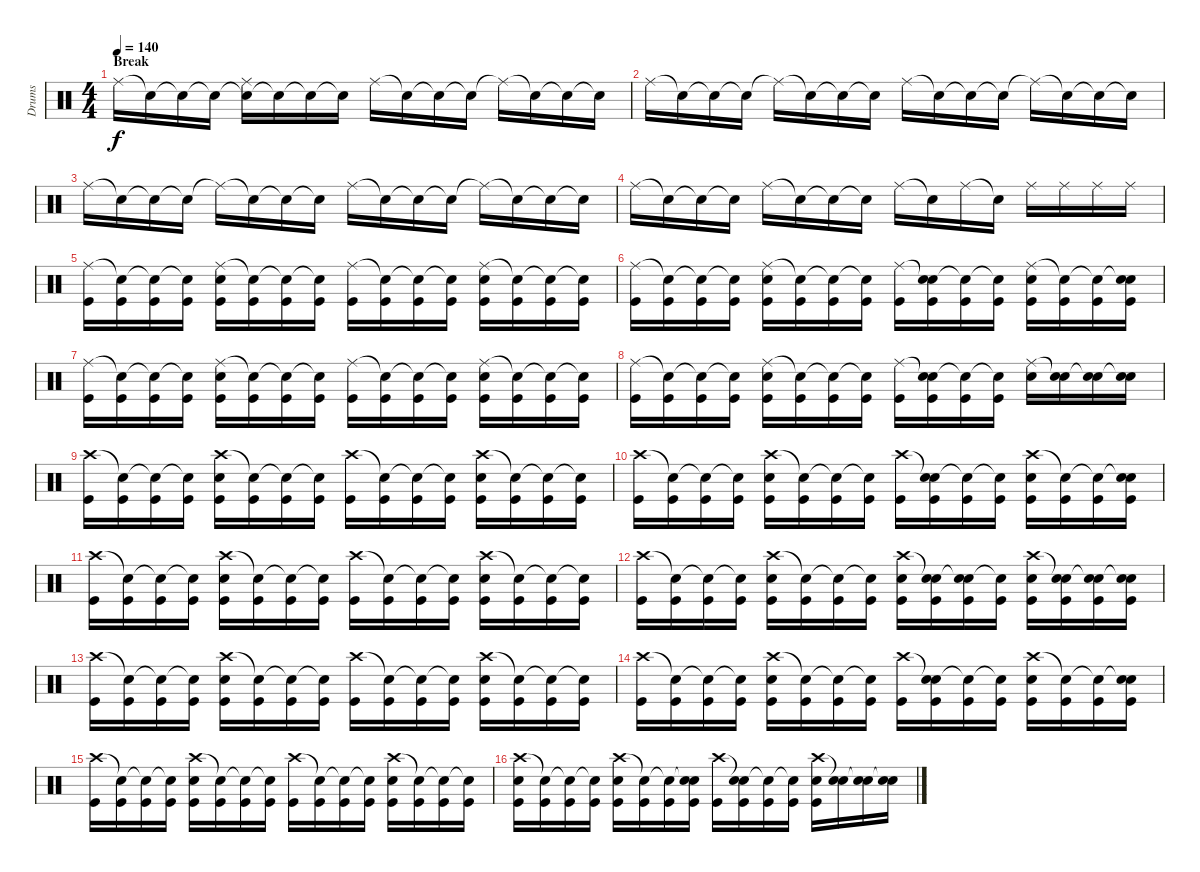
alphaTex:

\track ("Drums" "Drums") {instrument percussion}
\staff {score}
\articulation defaults
\ts (4 4)
\section ("" "Break")
\tempo 140
\clef neutral
\ks c "Ride (middle)".16{dy f} "Snare (hit)"{t}.16 "Snare (hit)"{t}.16 "Snare (hit)"{t}.16
("Snare (hit)"{t} "Ride (middle)"{t}).16 "Snare (hit)"{t}.16 "Snare (hit)"{t}.16 "Snare (hit)"{t}.16 "Ride (middle)".16 "Snare (hit)"{t}.16 "Snare (hit)"{t}.16 "Snare (hit)"{t}.16 "Ride (middle)"{t}.16 "Snare (hit)"{t}.16 "Snare (hit)"{t}.16 "Snare (hit)"{t}.16 |
"Ride (middle)".16 "Snare (hit)"{t}.16 "Snare (hit)"{t}.16 "Snare (hit)"{t}.16 "Ride (middle)"{t}.16 "Snare (hit)"{t}.16 "Snare (hit)"{t}.16 "Snare (hit)"{t}.16 "Ride (middle)".16 "Snare (hit)"{t}.16 "Snare (hit)"{t}.16 "Snare (hit)"{t}.16 "Ride (middle)"{t}.16 "Snare (hit)"{t}.16 "Snare (hit)"{t}.16 "Snare (hit)"{t}.16 |
"Ride (middle)".16 "Snare (hit)"{t}.16 "Snare (hit)"{t}.16 "Snare (hit)"{t}.16 "Ride (middle)"{t}.16 "Snare (hit)"{t}.16 "Snare (hit)"{t}.16 "Snare (hit)"{t}.16 "Ride (middle)".16 "Snare (hit)"{t}.16 "Snare (hit)"{t}.16 "Snare (hit)"{t}.16 "Ride (middle)"{t}.16 "Snare (hit)"{t}.16 "Snare (hit)"{t}.16 "Snare (hit)"{t}.16 |
"Ride (middle)".16 "Snare (hit)"{t}.16 "Snare (hit)"{t}.16 "Snare (hit)"{t}.16 "Ride (middle)".16 "Snare (hit)"{t}.16 "Snare (hit)"{t}.16 "Snare (hit)"{t}.16 "Ride (middle)".16 "Snare (hit)"{t}.16 "Ride (middle)".16 "Snare (hit)"{t}.16 "Ride (middle)".16 "Ride (middle)".16 "Ride (middle)".16 "Ride (middle)".16 |
("Ride (middle)" "Kick (hit)").16 ("Snare (hit)"{t} "Kick (hit)").16 ("Snare (hit)"{t} "Kick (hit)").16 ("Snare (hit)"{t} "Kick (hit)").16 ("Ride (middle)" "Electric Snare (hit)" "Kick (hit)").16 ("Snare (hit)"{t} "Kick (hit)").16 ("Snare (hit)"{t} "Kick (hit)").16 ("Snare (hit)"{t} "Kick (hit)").16 ("Ride (middle)" "Kick (hit)").16 ("Snare (hit)"{t} "Kick (hit)").16 ("Snare (hit)"{t} "Kick (hit)").16 ("Snare (hit)"{t} "Kick (hit)").16 ("Ride (middle)" "Electric Snare (hit)" "Kick (hit)").16 ("Snare (hit)"{t} "Kick (hit)").16 ("Snare (hit)"{t} "Kick (hit)").16 ("Snare (hit)"{t} "Kick (hit)").16 |
("Ride (middle)" "Kick (hit)").16 ("Snare (hit)"{t} "Kick (hit)").16 ("Snare (hit)"{t} "Kick (hit)").16 ("Snare (hit)"{t} "Kick (hit)").16 ("Ride (middle)" "Electric Snare (hit)" "Kick (hit)").16 ("Snare (hit)"{t} "Kick (hit)").16 ("Snare (hit)"{t} "Kick (hit)").16 ("Snare (hit)"{t} "Kick (hit)").16 ("Ride (middle)" "Kick (hit)").16 ("Snare (hit)"{t} "Electric Snare (hit)" "Kick (hit)").16 ("Snare (hit)"{t} "Kick (hit)").16 ("Snare (hit)"{t} "Kick (hit)").16 ("Ride (middle)" "Electric Snare (hit)" "Kick (hit)").16 ("Snare (hit)"{t} "Kick (hit)").16 ("Snare (hit)"{t} "Kick (hit)").16 ("Snare (hit)"{t} "Electric Snare (hit)" "Kick (hit)").16 |
("Ride (middle)" "Kick (hit)").16 ("Snare (hit)"{t} "Kick (hit)").16 ("Snare (hit)"{t} "Kick (hit)").16 ("Snare (hit)"{t} "Kick (hit)").16 ("Ride (middle)" "Electric Snare (hit)" "Kick (hit)").16 ("Snare (hit)"{t} "Kick (hit)").16 ("Snare (hit)"{t} "Kick (hit)").16 ("Snare (hit)"{t} "Kick (hit)").16 ("Ride (middle)" "Kick (hit)").16 ("Snare (hit)"{t} "Kick (hit)").16 ("Snare (hit)"{t} "Kick (hit)").16 ("Snare (hit)"{t} "Kick (hit)").16 ("Ride (middle)" "Electric Snare (hit)" "Kick (hit)").16 ("Snare (hit)"{t} "Kick (hit)").16 ("Snare (hit)"{t} "Kick (hit)").16 ("Snare (hit)"{t} "Kick (hit)").16 |
("Ride (middle)" "Kick (hit)").16 ("Snare (hit)"{t} "Kick (hit)").16 ("Snare (hit)"{t} "Kick (hit)").16 ("Snare (hit)"{t} "Kick (hit)").16 ("Ride (middle)" "Electric Snare (hit)" "Kick (hit)").16 ("Snare (hit)"{t} "Kick (hit)").16 ("Snare (hit)"{t} "Kick (hit)").16 ("Snare (hit)"{t} "Kick (hit)").16 ("Ride (middle)" "Kick (hit)").16 ("Snare (hit)"{t} "Electric Snare (hit)" "Kick (hit)").16 ("Snare (hit)"{t} "Kick (hit)").16 ("Snare (hit)"{t} "Kick (hit)").16 ("Ride (middle)" "Electric Snare (hit)").16 ("Snare (hit)"{t} "Electric Snare (hit)").16 ("Snare (hit)"{t} "Electric Snare (hit)").16 ("Snare (hit)"{t} "Electric Snare (hit)").16 |
("Crash high (hit)" "Kick (hit)").16 ("Snare (hit)"{t} "Kick (hit)").16 ("Snare (hit)"{t} "Kick (hit)").16 ("Snare (hit)"{t} "Kick (hit)").16 ("Crash high (hit)" "Electric Snare (hit)" "Kick (hit)").16 ("Snare (hit)"{t} "Kick (hit)").16 ("Snare (hit)"{t} "Kick (hit)").16 ("Snare (hit)"{t} "Kick (hit)").16 ("Crash high (hit)" "Kick (hit)").16 ("Snare (hit)"{t} "Kick (hit)").16 ("Snare (hit)"{t} "Kick (hit)").16 ("Snare (hit)"{t} "Kick (hit)").16 ("Crash high (hit)" "Electric Snare (hit)" "Kick (hit)").16 ("Snare (hit)"{t} "Kick (hit)").16 ("Snare (hit)"{t} "Kick (hit)").16 ("Snare (hit)"{t} "Kick (hit)").16 |
("Crash high (hit)" "Kick (hit)").16 ("Snare (hit)"{t} "Kick (hit)").16 ("Snare (hit)"{t} "Kick (hit)").16 ("Snare (hit)"{t} "Kick (hit)").16 ("Crash high (hit)" "Electric Snare (hit)" "Kick (hit)").16 ("Snare (hit)"{t} "Kick (hit)").16 ("Snare (hit)"{t} "Kick (hit)").16 ("Snare (hit)"{t} "Kick (hit)").16 ("Crash high (hit)" "Kick (hit)").16 ("Snare (hit)"{t} "Electric Snare (hit)" "Kick (hit)").16 ("Snare (hit)"{t} "Kick (hit)").16 ("Snare (hit)"{t} "Kick (hit)").16 ("Crash high (hit)" "Electric Snare (hit)" "Kick (hit)").16 ("Snare (hit)"{t} "Kick (hit)").16 ("Snare (hit)"{t} "Kick (hit)").16 ("Snare (hit)"{t} "Electric Snare (hit)" "Kick (hit)").16 |
("Crash high (hit)" "Kick (hit)").16 ("Snare (hit)"{t} "Kick (hit)").16 ("Snare (hit)"{t} "Kick (hit)").16 ("Snare (hit)"{t} "Kick (hit)").16 ("Crash high (hit)" "Electric Snare (hit)" "Kick (hit)").16 ("Snare (hit)"{t} "Kick (hit)").16 ("Snare (hit)"{t} "Kick (hit)").16 ("Snare (hit)"{t} "Kick (hit)").16 ("Crash high (hit)" "Kick (hit)").16 ("Snare (hit)"{t} "Kick (hit)").16 ("Snare (hit)"{t} "Kick (hit)").16 ("Snare (hit)"{t} "Kick (hit)").16 ("Crash high (hit)" "Electric Snare (hit)" "Kick (hit)").16 ("Snare (hit)"{t} "Kick (hit)").16 ("Snare (hit)"{t} "Kick (hit)").16 ("Snare (hit)"{t} "Kick (hit)").16 |
("Crash high (hit)" "Kick (hit)").16 ("Snare (hit)"{t} "Kick (hit)").16 ("Snare (hit)"{t} "Kick (hit)").16 ("Snare (hit)"{t} "Kick (hit)").16 ("Crash high (hit)" "Electric Snare (hit)" "Kick (hit)").16 ("Snare (hit)"{t} "Kick (hit)").16 ("Snare (hit)"{t} "Kick (hit)").16 ("Snare (hit)"{t} "Kick (hit)").16 ("Crash high (hit)" "Electric Snare (hit)" "Kick (hit)").16 ("Snare (hit)"{t} "Electric Snare (hit)" "Kick (hit)").16 ("Snare (hit)"{t} "Electric Snare (hit)" "Kick (hit)").16 ("Snare (hit)"{t} "Kick (hit)").16 ("Crash high (hit)" "Electric Snare (hit)" "Kick (hit)").16 ("Snare (hit)"{t} "Electric Snare (hit)" "Kick (hit)").16 ("Snare (hit)"{t} "Electric Snare (hit)" "Kick (hit)").16 ("Snare (hit)"{t} "Electric Snare (hit)" "Kick (hit)").16 |
("Crash high (hit)" "Kick (hit)").16 ("Snare (hit)"{t} "Kick (hit)").16 ("Snare (hit)"{t} "Kick (hit)").16 ("Snare (hit)"{t} "Kick (hit)").16 ("Crash high (hit)" "Electric Snare (hit)" "Kick (hit)").16 ("Snare (hit)"{t} "Kick (hit)").16 ("Snare (hit)"{t} "Kick (hit)").16 ("Snare (hit)"{t} "Kick (hit)").16 ("Crash high (hit)" "Kick (hit)").16 ("Snare (hit)"{t} "Kick (hit)").16 ("Snare (hit)"{t} "Kick (hit)").16 ("Snare (hit)"{t} "Kick (hit)").16 ("Crash high (hit)" "Electric Snare (hit)" "Kick (hit)").16 ("Snare (hit)"{t} "Kick (hit)").16 ("Snare (hit)"{t} "Kick (hit)").16 ("Snare (hit)"{t} "Kick (hit)").16 |
("Crash high (hit)" "Kick (hit)").16 ("Snare (hit)"{t} "Kick (hit)").16 ("Snare (hit)"{t} "Kick (hit)").16 ("Snare (hit)"{t} "Kick (hit)").16 ("Crash high (hit)" "Electric Snare (hit)" "Kick (hit)").16 ("Snare (hit)"{t} "Kick (hit)").16 ("Snare (hit)"{t} "Kick (hit)").16 ("Snare (hit)"{t} "Kick (hit)").16 ("Crash high (hit)" "Kick (hit)").16 ("Snare (hit)"{t} "Electric Snare (hit)" "Kick (hit)").16 ("Snare (hit)"{t} "Kick (hit)").16 ("Snare (hit)"{t} "Kick (hit)").16 ("Crash high (hit)" "Electric Snare (hit)" "Kick (hit)").16 ("Snare (hit)"{t} "Kick (hit)").16 ("Snare (hit)"{t} "Kick (hit)").16 ("Snare (hit)"{t} "Electric Snare (hit)" "Kick (hit)").16 |
("Crash high (hit)" "Kick (hit)").16 ("Snare (hit)"{t} "Kick (hit)").16 ("Snare (hit)"{t} "Kick (hit)").16 ("Snare (hit)"{t} "Kick (hit)").16 ("Crash high (hit)" "Electric Snare (hit)" "Kick (hit)").16 ("Snare (hit)"{t} "Kick (hit)").16 ("Snare (hit)"{t} "Kick (hit)").16 ("Snare (hit)"{t} "Kick (hit)").16 ("Crash high (hit)" "Kick (hit)").16 ("Snare (hit)"{t} "Kick (hit)").16 ("Snare (hit)"{t} "Kick (hit)").16 ("Snare (hit)"{t} "Kick (hit)").16 ("Crash high (hit)" "Electric Snare (hit)" "Kick (hit)").16 ("Snare (hit)"{t} "Kick (hit)").16 ("Snare (hit)"{t} "Kick (hit)").16 ("Snare (hit)"{t} "Kick (hit)").16 |
("Crash high (hit)" "Electric Snare (hit)" "Kick (hit)").16 ("Snare (hit)"{t} "Kick (hit)").16 ("Snare (hit)"{t} "Kick (hit)").16 ("Snare (hit)"{t} "Kick (hit)").16 ("Crash high (hit)" "Electric Snare (hit)" "Kick (hit)").16 ("Snare (hit)"{t} "Kick (hit)").16 ("Snare (hit)"{t} "Kick (hit)").16 ("Snare (hit)"{t} "Electric Snare (hit)" "Kick (hit)").16 ("Crash high (hit)" "Kick (hit)").16 ("Snare (hit)"{t} "Electric Snare (hit)" "Kick (hit)").16 ("Snare (hit)"{t} "Kick (hit)").16 ("Snare (hit)"{t} "Kick (hit)").16 ("Crash high (hit)" "Electric Snare (hit)" "Kick (hit)").16 ("Snare (hit)"{t} "Electric Snare (hit)").16 ("Snare (hit)"{t} "Electric Snare (hit)").16 ("Snare (hit)"{t} "Electric Snare (hit)").16
